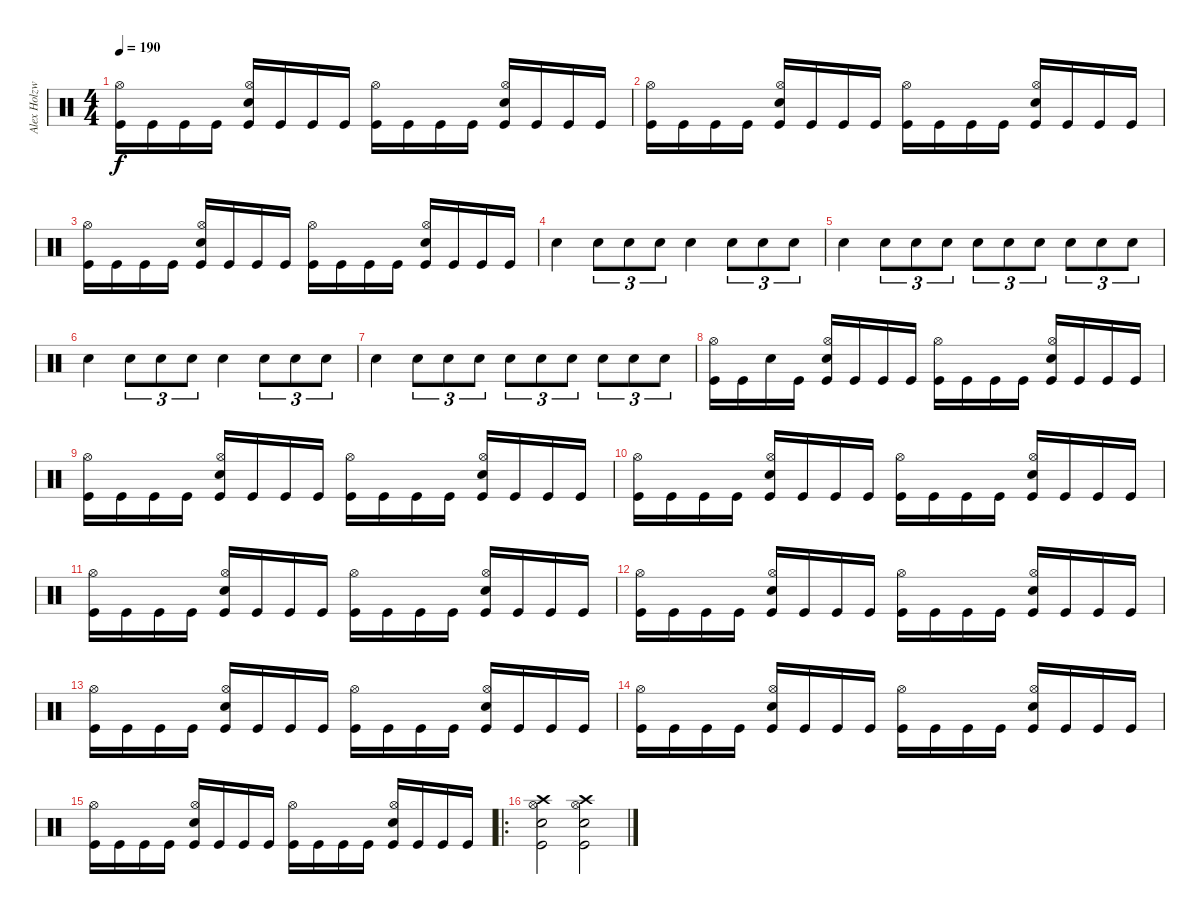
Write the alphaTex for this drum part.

\track ("Alex Holzwarth" "Alex Holzw") {instrument percussion}
\staff {score}
\articulation defaults
\ts (4 4)
\tempo 190
\clef neutral
\ks c
("Kick (hit)" "Hi-Hat (open)").16{dy f} "Kick (hit)".16 "Kick (hit)".16 "Kick (hit)".16 ("Kick (hit)" "Electric Snare (hit)" "Hi-Hat (open)").16 "Kick (hit)".16 "Kick (hit)".16 "Kick (hit)".16 ("Kick (hit)" "Hi-Hat (open)").16 "Kick (hit)".16 "Kick (hit)".16 "Kick (hit)".16 ("Kick (hit)" "Electric Snare (hit)" "Hi-Hat (open)").16 "Kick (hit)".16 "Kick (hit)".16 "Kick (hit)".16 |
("Kick (hit)" "Hi-Hat (open)").16 "Kick (hit)".16 "Kick (hit)".16 "Kick (hit)".16 ("Kick (hit)" "Electric Snare (hit)" "Hi-Hat (open)").16 "Kick (hit)".16 "Kick (hit)".16 "Kick (hit)".16 ("Kick (hit)" "Hi-Hat (open)").16 "Kick (hit)".16 "Kick (hit)".16 "Kick (hit)".16 ("Kick (hit)" "Electric Snare (hit)" "Hi-Hat (open)").16 "Kick (hit)".16 "Kick (hit)".16 "Kick (hit)".16 |
("Kick (hit)" "Hi-Hat (open)").16 "Kick (hit)".16 "Kick (hit)".16 "Kick (hit)".16 ("Kick (hit)" "Electric Snare (hit)" "Hi-Hat (open)").16 "Kick (hit)".16 "Kick (hit)".16 "Kick (hit)".16 ("Kick (hit)" "Hi-Hat (open)").16 "Kick (hit)".16 "Kick (hit)".16 "Kick (hit)".16 ("Kick (hit)" "Electric Snare (hit)" "Hi-Hat (open)").16 "Kick (hit)".16 "Kick (hit)".16 "Kick (hit)".16 |
"Electric Snare (hit)".4 "Electric Snare (hit)".8{tu (3 2)} "Electric Snare (hit)".8{tu (3 2)} "Electric Snare (hit)".8{tu (3 2)} "Electric Snare (hit)".4 "Electric Snare (hit)".8{tu (3 2)} "Electric Snare (hit)".8{tu (3 2)} "Electric Snare (hit)".8{tu (3 2)} |
"Electric Snare (hit)".4 "Electric Snare (hit)".8{tu (3 2)} "Electric Snare (hit)".8{tu (3 2)} "Electric Snare (hit)".8{tu (3 2)} "Electric Snare (hit)".8{tu (3 2)} "Electric Snare (hit)".8{tu (3 2)} "Electric Snare (hit)".8{tu (3 2)} "Electric Snare (hit)".8{tu (3 2)} "Electric Snare (hit)".8{tu (3 2)} "Electric Snare (hit)".8{tu (3 2)} |
"Electric Snare (hit)".4 "Electric Snare (hit)".8{tu (3 2)} "Electric Snare (hit)".8{tu (3 2)} "Electric Snare (hit)".8{tu (3 2)} "Electric Snare (hit)".4 "Electric Snare (hit)".8{tu (3 2)} "Electric Snare (hit)".8{tu (3 2)} "Electric Snare (hit)".8{tu (3 2)} |
"Electric Snare (hit)".4 "Electric Snare (hit)".8{tu (3 2)} "Electric Snare (hit)".8{tu (3 2)} "Electric Snare (hit)".8{tu (3 2)} "Electric Snare (hit)".8{tu (3 2)} "Electric Snare (hit)".8{tu (3 2)} "Electric Snare (hit)".8{tu (3 2)} "Electric Snare (hit)".8{tu (3 2)} "Electric Snare (hit)".8{tu (3 2)} "Electric Snare (hit)".8{tu (3 2)} |
("Kick (hit)" "Hi-Hat (open)").16 "Kick (hit)".16 "Snare (hit)".16 "Kick (hit)".16 ("Kick (hit)" "Electric Snare (hit)" "Hi-Hat (open)").16 "Kick (hit)".16 "Kick (hit)".16 "Kick (hit)".16 ("Kick (hit)" "Hi-Hat (open)").16 "Kick (hit)".16 "Kick (hit)".16 "Kick (hit)".16 ("Kick (hit)" "Electric Snare (hit)" "Hi-Hat (open)").16 "Kick (hit)".16 "Kick (hit)".16 "Kick (hit)".16 |
("Kick (hit)" "Hi-Hat (open)").16 "Kick (hit)".16 "Kick (hit)".16 "Kick (hit)".16 ("Kick (hit)" "Electric Snare (hit)" "Hi-Hat (open)").16 "Kick (hit)".16 "Kick (hit)".16 "Kick (hit)".16 ("Kick (hit)" "Hi-Hat (open)").16 "Kick (hit)".16 "Kick (hit)".16 "Kick (hit)".16 ("Kick (hit)" "Electric Snare (hit)" "Hi-Hat (open)").16 "Kick (hit)".16 "Kick (hit)".16 "Kick (hit)".16 |
("Kick (hit)" "Hi-Hat (open)").16 "Kick (hit)".16 "Kick (hit)".16 "Kick (hit)".16 ("Kick (hit)" "Electric Snare (hit)" "Hi-Hat (open)").16 "Kick (hit)".16 "Kick (hit)".16 "Kick (hit)".16 ("Kick (hit)" "Hi-Hat (open)").16 "Kick (hit)".16 "Kick (hit)".16 "Kick (hit)".16 ("Kick (hit)" "Electric Snare (hit)" "Hi-Hat (open)").16 "Kick (hit)".16 "Kick (hit)".16 "Kick (hit)".16 |
("Kick (hit)" "Hi-Hat (open)").16 "Kick (hit)".16 "Kick (hit)".16 "Kick (hit)".16 ("Kick (hit)" "Electric Snare (hit)" "Hi-Hat (open)").16 "Kick (hit)".16 "Kick (hit)".16 "Kick (hit)".16 ("Kick (hit)" "Hi-Hat (open)").16 "Kick (hit)".16 "Kick (hit)".16 "Kick (hit)".16 ("Kick (hit)" "Electric Snare (hit)" "Hi-Hat (open)").16 "Kick (hit)".16 "Kick (hit)".16 "Kick (hit)".16 |
("Kick (hit)" "Hi-Hat (open)").16 "Kick (hit)".16 "Kick (hit)".16 "Kick (hit)".16 ("Kick (hit)" "Electric Snare (hit)" "Hi-Hat (open)").16 "Kick (hit)".16 "Kick (hit)".16 "Kick (hit)".16 ("Kick (hit)" "Hi-Hat (open)").16 "Kick (hit)".16 "Kick (hit)".16 "Kick (hit)".16 ("Kick (hit)" "Electric Snare (hit)" "Hi-Hat (open)").16 "Kick (hit)".16 "Kick (hit)".16 "Kick (hit)".16 |
("Kick (hit)" "Hi-Hat (open)").16 "Kick (hit)".16 "Kick (hit)".16 "Kick (hit)".16 ("Kick (hit)" "Electric Snare (hit)" "Hi-Hat (open)").16 "Kick (hit)".16 "Kick (hit)".16 "Kick (hit)".16 ("Kick (hit)" "Hi-Hat (open)").16 "Kick (hit)".16 "Kick (hit)".16 "Kick (hit)".16 ("Kick (hit)" "Electric Snare (hit)" "Hi-Hat (open)").16 "Kick (hit)".16 "Kick (hit)".16 "Kick (hit)".16 |
("Kick (hit)" "Hi-Hat (open)").16 "Kick (hit)".16 "Kick (hit)".16 "Kick (hit)".16 ("Kick (hit)" "Electric Snare (hit)" "Hi-Hat (open)").16 "Kick (hit)".16 "Kick (hit)".16 "Kick (hit)".16 ("Kick (hit)" "Hi-Hat (open)").16 "Kick (hit)".16 "Kick (hit)".16 "Kick (hit)".16 ("Kick (hit)" "Electric Snare (hit)" "Hi-Hat (open)").16 "Kick (hit)".16 "Kick (hit)".16 "Kick (hit)".16 |
("Kick (hit)" "Hi-Hat (open)").16 "Kick (hit)".16 "Kick (hit)".16 "Kick (hit)".16 ("Kick (hit)" "Electric Snare (hit)" "Hi-Hat (open)").16 "Kick (hit)".16 "Kick (hit)".16 "Kick (hit)".16 ("Kick (hit)" "Hi-Hat (open)").16 "Kick (hit)".16 "Kick (hit)".16 "Kick (hit)".16 ("Kick (hit)" "Electric Snare (hit)" "Hi-Hat (open)").16 "Kick (hit)".16 "Kick (hit)".16 "Kick (hit)".16 |
\ro
("Kick (hit)" "Crash high (hit)" "Electric Snare (hit)" "Hi-Hat (open)").2 ("Kick (hit)" "Crash high (hit)" "Electric Snare (hit)" "Hi-Hat (open)").2
